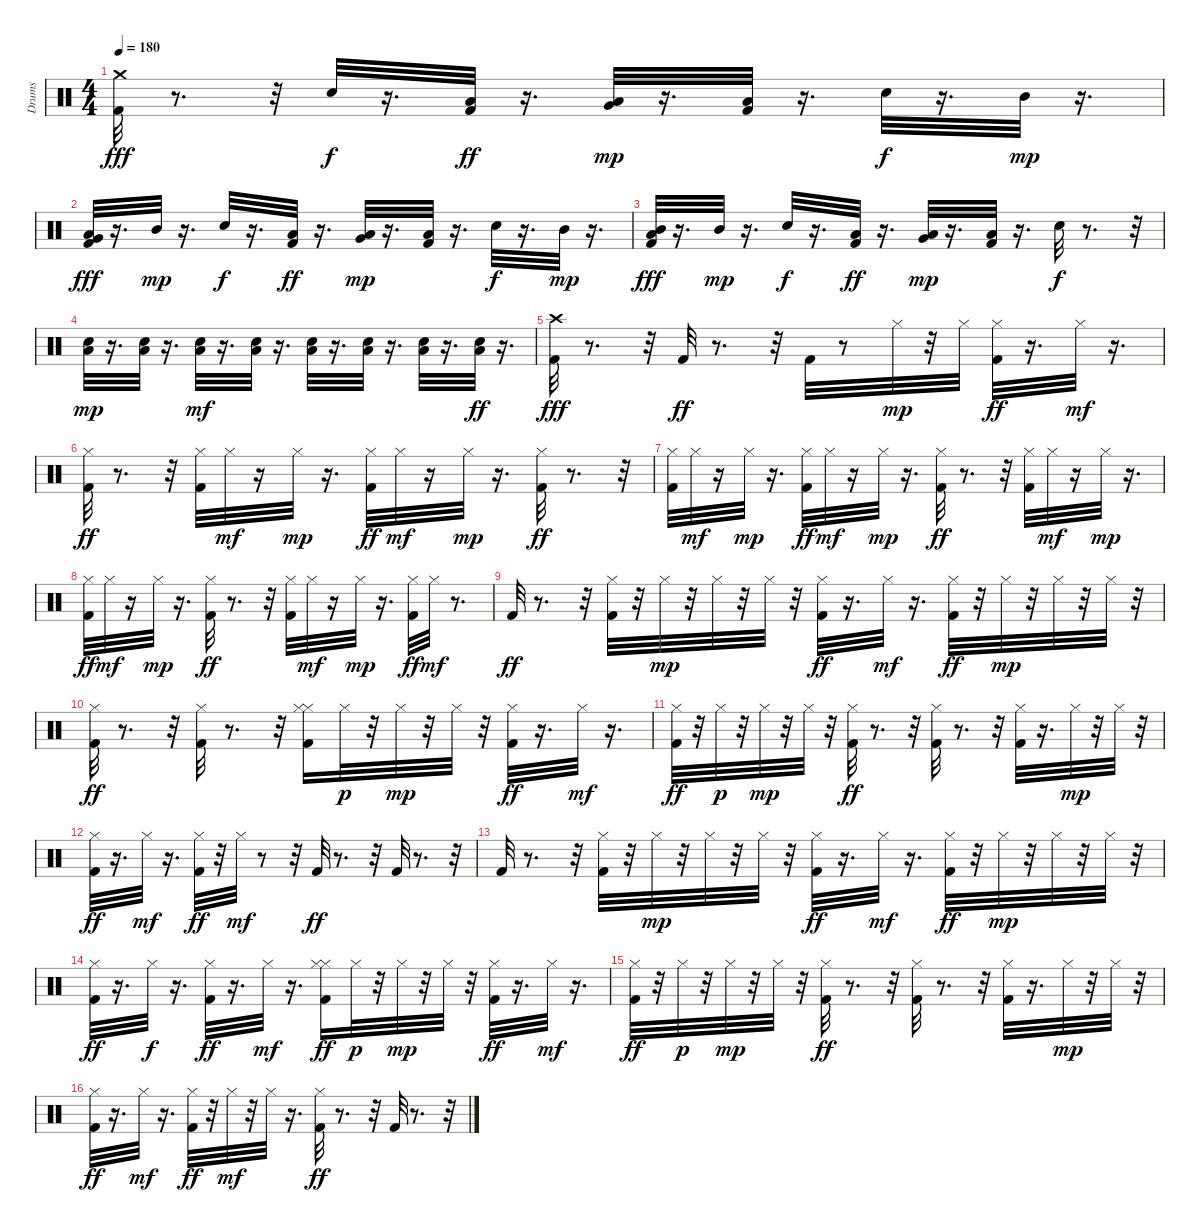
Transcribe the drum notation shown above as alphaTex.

\track ("Drums" "Drums") {instrument percussion}
\staff {score}
\articulation defaults
\ts (4 4)
\tempo 180
\clef neutral
\ks c
("Kick (hit) 2" "Crash medium (hit)").32{dy fff} r.8{d} r.32 "Snare (hit) 2".32{dy f} r.16{d} ("Low Tom (hit)" "Kick (hit) 2").32{dy ff} r.16{d} ("Very Low Tom (hit)" "Low Floor Tom (hit)").32{dy mp} r.16{d} ("Low Tom (hit)" "Kick (hit) 2").32 r.16{d} "Snare (hit) 2".32{dy f} r.16{d} "Mid Tom (hit)".32{dy mp} r.16{d} |
("Low Tom (hit)" "Very Low Tom (hit)" "Kick (hit) 2").32{dy fff} r.16{d} "Mid Tom (hit)".32{dy mp} r.16{d} "Snare (hit) 2".32{dy f} r.16{d} ("Low Tom (hit)" "Kick (hit) 2").32{dy ff} r.16{d} ("Very Low Tom (hit)" "Low Floor Tom (hit)").32{dy mp} r.16{d} ("Low Tom (hit)" "Kick (hit) 2").32 r.16{d} "Snare (hit) 2".32{dy f} r.16{d} "Mid Tom (hit)".32{dy mp} r.16{d} |
("Mid Tom (hit)" "Low Tom (hit)" "Kick (hit) 2").32{dy fff} r.16{d} "Mid Tom (hit)".32{dy mp} r.16{d} "Snare (hit) 2".32{dy f} r.16{d} ("Low Tom (hit)" "Kick (hit) 2").32{dy ff} r.16{d} ("Very Low Tom (hit)" "Low Floor Tom (hit)").32{dy mp} r.16{d} ("Low Tom (hit)" "Kick (hit) 2").32 r.16{d} "Snare (hit) 2".32{dy f} r.8{d} r.32 |
("Low Floor Tom (hit)" "Snare (hit) 2").32{dy mp} r.16{d} ("Low Floor Tom (hit)" "Snare (hit) 2").32 r.16{d} ("Low Floor Tom (hit)" "Snare (hit) 2").32{dy mf} r.16{d} ("Low Floor Tom (hit)" "Snare (hit) 2").32 r.16{d} ("Low Floor Tom (hit)" "Snare (hit) 2").32 r.16{d} ("Low Floor Tom (hit)" "Snare (hit) 2").32 r.16{d} ("Low Floor Tom (hit)" "Snare (hit) 2").32 r.16{d} ("Low Floor Tom (hit)" "Snare (hit) 2").32{dy ff} r.16{d} |
("Crash high (hit)" "Kick (hit) 2").32{dy fff} r.8{d} r.32 "Kick (hit) 2".32{dy ff} r.8{d} r.32 "Kick (hit) 2".32 r.8 "Hi-Hat (closed)".32{dy mp} r.32 "Hi-Hat (closed)".32 ("Hi-Hat (closed)" "Kick (hit) 2").32{dy ff} r.16{d} "Hi-Hat (closed)".32{dy mf} r.16{d} |
("Hi-Hat (closed)" "Kick (hit) 2").32{dy ff} r.8{d} r.32 ("Hi-Hat (closed)" "Kick (hit) 2").32 "Hi-Hat (closed)".32{dy mf} r.16 "Hi-Hat (closed)".32{dy mp} r.16{d} ("Hi-Hat (closed)" "Kick (hit) 2").32{dy ff} "Hi-Hat (closed)".32{dy mf} r.16 "Hi-Hat (closed)".32{dy mp} r.16{d} ("Hi-Hat (closed)" "Kick (hit) 2").32{dy ff} r.8{d} r.32 |
("Hi-Hat (closed)" "Kick (hit) 2").32 "Hi-Hat (closed)".32{dy mf} r.16 "Hi-Hat (closed)".32{dy mp} r.16{d} ("Hi-Hat (closed)" "Kick (hit) 2").32{dy ff} "Hi-Hat (closed)".32{dy mf} r.16 "Hi-Hat (closed)".32{dy mp} r.16{d} ("Hi-Hat (closed)" "Kick (hit) 2").32{dy ff} r.8{d} r.32 ("Hi-Hat (closed)" "Kick (hit) 2").32 "Hi-Hat (closed)".32{dy mf} r.16 "Hi-Hat (closed)".32{dy mp} r.16{d} |
("Hi-Hat (closed)" "Kick (hit) 2").32{dy ff} "Hi-Hat (closed)".32{dy mf} r.16 "Hi-Hat (closed)".32{dy mp} r.16{d} ("Hi-Hat (closed)" "Kick (hit) 2").32{dy ff} r.8{d} r.32 ("Hi-Hat (closed)" "Kick (hit) 2").32 "Hi-Hat (closed)".32{dy mf} r.16 "Hi-Hat (closed)".32{dy mp} r.16{d} ("Hi-Hat (closed)" "Kick (hit) 2").32{dy ff} "Hi-Hat (closed)".32{dy mf} r.8{d} |
"Kick (hit) 2".32{dy ff} r.8{d} r.32 ("Hi-Hat (closed)" "Kick (hit) 2").32 r.32 "Hi-Hat (closed)".32{dy mp} r.32 "Hi-Hat (closed)".32 r.32 "Hi-Hat (closed)".32 r.32 ("Hi-Hat (closed)" "Kick (hit) 2").32{dy ff} r.16{d} "Hi-Hat (closed)".32{dy mf} r.16{d} ("Hi-Hat (closed)" "Kick (hit) 2").32{dy ff} r.32 "Hi-Hat (closed)".32{dy mp} r.32 "Hi-Hat (closed)".32 r.32 "Hi-Hat (closed)".32 r.32 |
("Hi-Hat (closed)" "Kick (hit) 2").32{dy ff} r.8{d} r.32 ("Hi-Hat (closed)" "Kick (hit) 2").32 r.8{d} r.32 ("Hi-Hat (closed)" "Hi-Hat (closed)" "Kick (hit) 2").16 "Hi-Hat (closed)".32{dy p} r.32 "Hi-Hat (closed)".32{dy mp} r.32 "Hi-Hat (closed)".32 r.32 ("Hi-Hat (closed)" "Kick (hit) 2").32{dy ff} r.16{d} "Hi-Hat (closed)".32{dy mf} r.16{d} |
("Hi-Hat (closed)" "Kick (hit) 2").32{dy ff} r.32 "Hi-Hat (closed)".32{dy p} r.32 "Hi-Hat (closed)".32{dy mp} r.32 "Hi-Hat (closed)".32 r.32 ("Hi-Hat (closed)" "Kick (hit) 2").32{dy ff} r.8{d} r.32 ("Hi-Hat (closed)" "Kick (hit) 2").32 r.8{d} r.32 ("Hi-Hat (closed)" "Kick (hit) 2").32 r.16{d} "Hi-Hat (closed)".32{dy mp} r.32 "Hi-Hat (closed)".32 r.32 |
("Hi-Hat (closed)" "Kick (hit) 2").32{dy ff} r.16{d} "Hi-Hat (closed)".32{dy mf} r.16{d} ("Hi-Hat (closed)" "Kick (hit) 2").32{dy ff} r.32 "Hi-Hat (closed)".32{dy mf} r.8 r.32 "Kick (hit) 2".32{dy ff} r.8{d} r.32 "Kick (hit) 2".32 r.8{d} r.32 |
"Kick (hit) 2".32 r.8{d} r.32 ("Hi-Hat (closed)" "Kick (hit) 2").32 r.32 "Hi-Hat (closed)".32{dy mp} r.32 "Hi-Hat (closed)".32 r.32 "Hi-Hat (closed)".32 r.32 ("Hi-Hat (closed)" "Kick (hit) 2").32{dy ff} r.16{d} "Hi-Hat (closed)".32{dy mf} r.16{d} ("Hi-Hat (closed)" "Kick (hit) 2").32{dy ff} r.32 "Hi-Hat (closed)".32{dy mp} r.32 "Hi-Hat (closed)".32 r.32 "Hi-Hat (closed)".32 r.32 |
("Hi-Hat (closed)" "Kick (hit) 2").32{dy ff} r.16{d} "Hi-Hat (closed)".32{dy f} r.16{d} ("Hi-Hat (closed)" "Kick (hit) 2").32{dy ff} r.16{d} "Hi-Hat (closed)".32{dy mf} r.16{d} ("Hi-Hat (closed)" "Hi-Hat (closed)" "Kick (hit) 2").16{dy ff} "Hi-Hat (closed)".32{dy p} r.32 "Hi-Hat (closed)".32{dy mp} r.32 "Hi-Hat (closed)".32 r.32 ("Hi-Hat (closed)" "Kick (hit) 2").32{dy ff} r.16{d} "Hi-Hat (closed)".32{dy mf} r.16{d} |
("Hi-Hat (closed)" "Kick (hit) 2").32{dy ff} r.32 "Hi-Hat (closed)".32{dy p} r.32 "Hi-Hat (closed)".32{dy mp} r.32 "Hi-Hat (closed)".32 r.32 ("Hi-Hat (closed)" "Kick (hit) 2").32{dy ff} r.8{d} r.32 ("Hi-Hat (closed)" "Kick (hit) 2").32 r.8{d} r.32 ("Hi-Hat (closed)" "Kick (hit) 2").32 r.16{d} "Hi-Hat (closed)".32{dy mp} r.32 "Hi-Hat (closed)".32 r.32 |
("Hi-Hat (closed)" "Kick (hit) 2").32{dy ff} r.16{d} "Hi-Hat (closed)".32{dy mf} r.16{d} ("Hi-Hat (closed)" "Kick (hit) 2").32{dy ff} r.32 "Hi-Hat (closed)".32{dy mf} r.32 "Hi-Hat (closed)".32 r.16{d} ("Hi-Hat (closed)" "Kick (hit) 2").32{dy ff} r.8{d} r.32 "Kick (hit) 2".32 r.8{d} r.32
